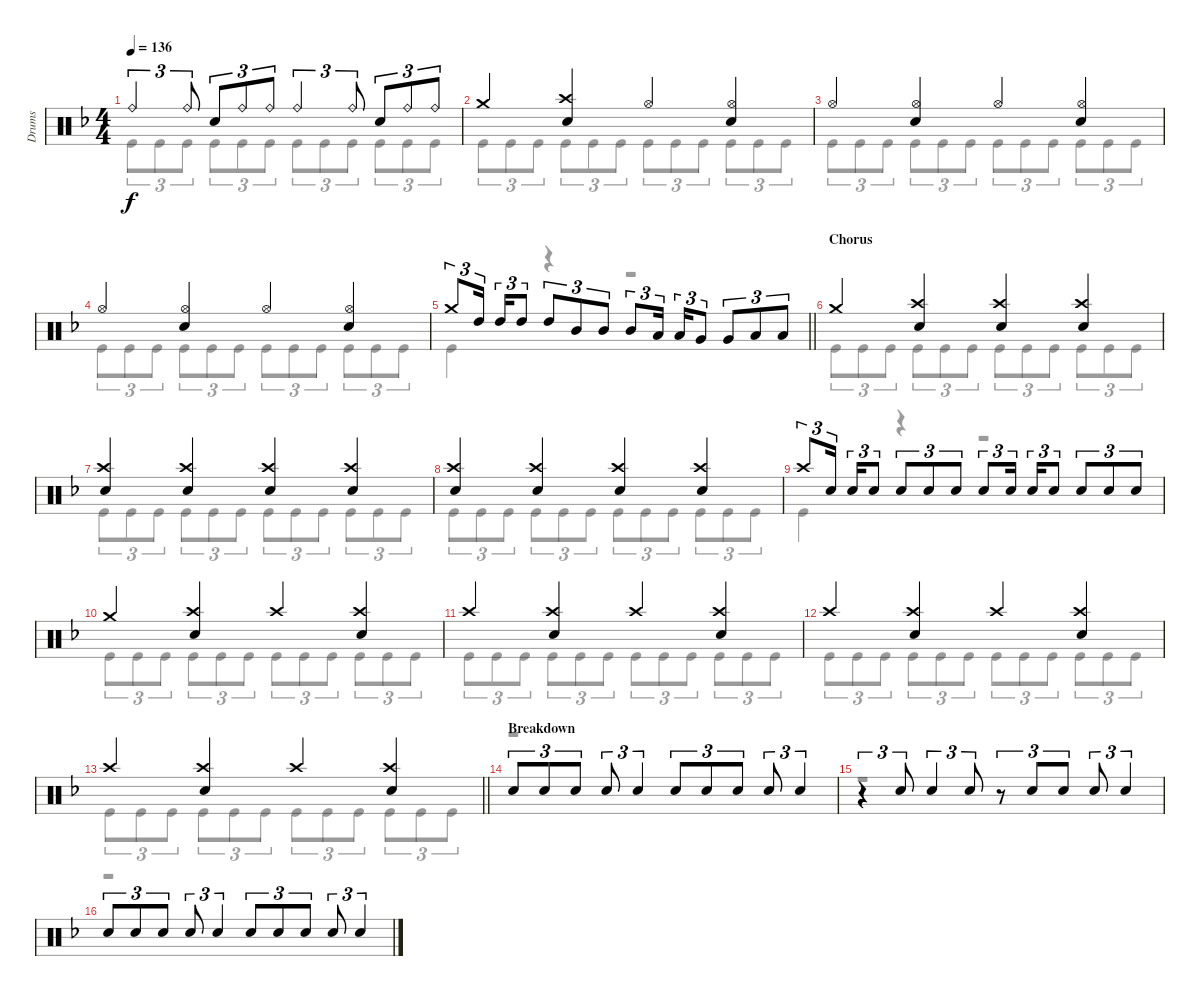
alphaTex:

\track ("Drums" "Drums") {instrument percussion}
\staff {score}
\articulation defaults
\voice
\ts (4 4)
\tempo 136
\clef neutral
\ks dminor "Ride (bell)".4{tu (3 2) dy f} "Ride (bell)".8{tu (3 2)} "Electric Snare (hit)".8{tu (3 2)} "Ride (bell)".8{tu (3 2)} "Ride (bell)".8{tu (3 2)} "Ride (bell)".4{tu (3 2)} "Ride (bell)".8{tu (3 2)} "Electric Snare (hit)".8{tu (3 2)} "Ride (bell)".8{tu (3 2)} "Ride (bell)".8{tu (3 2)}
|
"Crash medium (hit)".4 ("Crash high (hit)" "Electric Snare (hit)").4 "Hi-Hat (open)".4 ("Hi-Hat (open)" "Electric Snare (hit)").4 |
"Hi-Hat (open)".4 ("Hi-Hat (open)" "Electric Snare (hit)").4 "Hi-Hat (open)".4 ("Hi-Hat (open)" "Electric Snare (hit)").4 |
"Hi-Hat (open)".4 ("Hi-Hat (open)" "Electric Snare (hit)").4 "Hi-Hat (open)".4 ("Hi-Hat (open)" "Electric Snare (hit)").4 |
\barLineRight lightlight "Crash medium (hit)".8{tu (3 2)} "High Tom (hit)".16{tu (3 2)} "High Tom (hit)".16{tu (3 2)} "High Tom (hit)".8{tu (3 2)} "High Tom (hit)".8{tu (3 2)} "Mid Tom (hit)".8{tu (3 2)} "Mid Tom (hit)".8{tu (3 2)} "Mid Tom (hit)".8{tu (3 2)} "Low Tom (hit)".16{tu (3 2)} "Low Tom (hit)".16{tu (3 2)} "Very Low Tom (hit)".8{tu (3 2)} "Very Low Tom (hit)".8{tu (3 2)} "Low Floor Tom (hit)".8{tu (3 2)} "Low Floor Tom (hit)".8{tu (3 2)}
|
\section ("" "Chorus")
"Crash medium (hit)".4 ("Crash high (hit)" "Electric Snare (hit)").4 ("Crash high (hit)" "Electric Snare (hit)").4 ("Crash high (hit)" "Electric Snare (hit)").4 |
("Crash high (hit)" "Electric Snare (hit)").4 ("Crash high (hit)" "Electric Snare (hit)").4 ("Crash high (hit)" "Electric Snare (hit)").4 ("Crash high (hit)" "Electric Snare (hit)").4 |
("Crash high (hit)" "Electric Snare (hit)").4 ("Crash high (hit)" "Electric Snare (hit)").4 ("Crash high (hit)" "Electric Snare (hit)").4 ("Crash high (hit)" "Electric Snare (hit)").4 |
"Crash high (hit)".8{tu (3 2)} "Electric Snare (hit)".16{tu (3 2) beam splitsecondary} "Electric Snare (hit)".16{tu (3 2)} "Electric Snare (hit)".8{tu (3 2)} "Electric Snare (hit)".8{tu (3 2)} "Electric Snare (hit)".8{tu (3 2)} "Electric Snare (hit)".8{tu (3 2)} "Electric Snare (hit)".8{tu (3 2)} "Electric Snare (hit)".16{tu (3 2) beam splitsecondary} "Electric Snare (hit)".16{tu (3 2)} "Electric Snare (hit)".8{tu (3 2)} "Electric Snare (hit)".8{tu (3 2)} "Electric Snare (hit)".8{tu (3 2)} "Electric Snare (hit)".8{tu (3 2)} |
"Crash medium (hit)".4 ("Crash high (hit)" "Electric Snare (hit)").4 "Crash high (hit)".4 ("Crash high (hit)" "Electric Snare (hit)").4 |
"Crash high (hit)".4 ("Crash high (hit)" "Electric Snare (hit)").4 "Crash high (hit)".4 ("Crash high (hit)" "Electric Snare (hit)").4 |
"Crash high (hit)".4 ("Crash high (hit)" "Electric Snare (hit)").4 "Crash high (hit)".4 ("Crash high (hit)" "Electric Snare (hit)").4 |
\barLineRight lightlight "Crash high (hit)".4
("Crash high (hit)" "Electric Snare (hit)").4 "Crash high (hit)".4 ("Crash high (hit)" "Electric Snare (hit)").4 |
\section ("" "Breakdown")
"Electric Snare (hit)".8{tu (3 2)} "Electric Snare (hit)".8{tu (3 2)} "Electric Snare (hit)".8{tu (3 2)} "Electric Snare (hit)".8{tu (3 2)} "Electric Snare (hit)".4{tu (3 2)} "Electric Snare (hit)".8{tu (3 2)} "Electric Snare (hit)".8{tu (3 2)} "Electric Snare (hit)".8{tu (3 2)} "Electric Snare (hit)".8{tu (3 2)} "Electric Snare (hit)".4{tu (3 2)} |
r.4{tu (3 2)} "Electric Snare (hit)".8{tu (3 2)} "Electric Snare (hit)".4{tu (3 2)} "Electric Snare (hit)".8{tu (3 2)} r.8{tu (3 2)} "Electric Snare (hit)".8{tu (3 2)} "Electric Snare (hit)".8{tu (3 2)} "Electric Snare (hit)".8{tu (3 2)} "Electric Snare (hit)".4{tu (3 2)} |
"Electric Snare (hit)".8{tu (3 2)} "Electric Snare (hit)".8{tu (3 2)} "Electric Snare (hit)".8{tu (3 2)} "Electric Snare (hit)".8{tu (3 2)} "Electric Snare (hit)".4{tu (3 2)} "Electric Snare (hit)".8{tu (3 2)} "Electric Snare (hit)".8{tu (3 2)} "Electric Snare (hit)".8{tu (3 2)} "Electric Snare (hit)".8{tu (3 2)} "Electric Snare (hit)".4{tu (3 2)}
\voice
\clef neutral
\ottava regular
\simile none
\ks dminor "Kick (hit)".8{tu (3 2) dy f} "Kick (hit)".8{tu (3 2)} "Kick (hit)".8{tu (3 2)} "Kick (hit)".8{tu (3 2)} "Kick (hit)".8{tu (3 2)} "Kick (hit)".8{tu (3 2)} "Kick (hit)".8{tu (3 2)} "Kick (hit)".8{tu (3 2)} "Kick (hit)".8{tu (3 2)} "Kick (hit)".8{tu (3 2)} "Kick (hit)".8{tu (3 2)} "Kick (hit)".8{tu (3 2)}
|
"Kick (hit)".8{tu (3 2)} "Kick (hit)".8{tu (3 2)} "Kick (hit)".8{tu (3 2)} "Kick (hit)".8{tu (3 2)} "Kick (hit)".8{tu (3 2)} "Kick (hit)".8{tu (3 2)} "Kick (hit)".8{tu (3 2)} "Kick (hit)".8{tu (3 2)} "Kick (hit)".8{tu (3 2)} "Kick (hit)".8{tu (3 2)} "Kick (hit)".8{tu (3 2)} "Kick (hit)".8{tu (3 2)} |
"Kick (hit)".8{tu (3 2)} "Kick (hit)".8{tu (3 2)} "Kick (hit)".8{tu (3 2)} "Kick (hit)".8{tu (3 2)} "Kick (hit)".8{tu (3 2)} "Kick (hit)".8{tu (3 2)} "Kick (hit)".8{tu (3 2)} "Kick (hit)".8{tu (3 2)} "Kick (hit)".8{tu (3 2)} "Kick (hit)".8{tu (3 2)} "Kick (hit)".8{tu (3 2)} "Kick (hit)".8{tu (3 2)} |
"Kick (hit)".8{tu (3 2)} "Kick (hit)".8{tu (3 2)} "Kick (hit)".8{tu (3 2)} "Kick (hit)".8{tu (3 2)} "Kick (hit)".8{tu (3 2)} "Kick (hit)".8{tu (3 2)} "Kick (hit)".8{tu (3 2)} "Kick (hit)".8{tu (3 2)} "Kick (hit)".8{tu (3 2)} "Kick (hit)".8{tu (3 2)} "Kick (hit)".8{tu (3 2)} "Kick (hit)".8{tu (3 2)} |
\barLineRight lightlight "Kick (hit)".4
r.4 r.2 |
"Kick (hit)".8{tu (3 2)} "Kick (hit)".8{tu (3 2)} "Kick (hit)".8{tu (3 2)} "Kick (hit)".8{tu (3 2)} "Kick (hit)".8{tu (3 2)} "Kick (hit)".8{tu (3 2)} "Kick (hit)".8{tu (3 2)} "Kick (hit)".8{tu (3 2)} "Kick (hit)".8{tu (3 2)} "Kick (hit)".8{tu (3 2)} "Kick (hit)".8{tu (3 2)} "Kick (hit)".8{tu (3 2)} |
"Kick (hit)".8{tu (3 2)} "Kick (hit)".8{tu (3 2)} "Kick (hit)".8{tu (3 2)} "Kick (hit)".8{tu (3 2)} "Kick (hit)".8{tu (3 2)} "Kick (hit)".8{tu (3 2)} "Kick (hit)".8{tu (3 2)} "Kick (hit)".8{tu (3 2)} "Kick (hit)".8{tu (3 2)} "Kick (hit)".8{tu (3 2)} "Kick (hit)".8{tu (3 2)} "Kick (hit)".8{tu (3 2)} |
"Kick (hit)".8{tu (3 2)} "Kick (hit)".8{tu (3 2)} "Kick (hit)".8{tu (3 2)} "Kick (hit)".8{tu (3 2)} "Kick (hit)".8{tu (3 2)} "Kick (hit)".8{tu (3 2)} "Kick (hit)".8{tu (3 2)} "Kick (hit)".8{tu (3 2)} "Kick (hit)".8{tu (3 2)} "Kick (hit)".8{tu (3 2)} "Kick (hit)".8{tu (3 2)} "Kick (hit)".8{tu (3 2)} |
"Kick (hit)".4 r.4 r.2 |
"Kick (hit)".8{tu (3 2)} "Kick (hit)".8{tu (3 2)} "Kick (hit)".8{tu (3 2)} "Kick (hit)".8{tu (3 2)} "Kick (hit)".8{tu (3 2)} "Kick (hit)".8{tu (3 2)} "Kick (hit)".8{tu (3 2)} "Kick (hit)".8{tu (3 2)} "Kick (hit)".8{tu (3 2)} "Kick (hit)".8{tu (3 2)} "Kick (hit)".8{tu (3 2)} "Kick (hit)".8{tu (3 2)} |
"Kick (hit)".8{tu (3 2)} "Kick (hit)".8{tu (3 2)} "Kick (hit)".8{tu (3 2)} "Kick (hit)".8{tu (3 2)} "Kick (hit)".8{tu (3 2)} "Kick (hit)".8{tu (3 2)} "Kick (hit)".8{tu (3 2)} "Kick (hit)".8{tu (3 2)} "Kick (hit)".8{tu (3 2)} "Kick (hit)".8{tu (3 2)} "Kick (hit)".8{tu (3 2)} "Kick (hit)".8{tu (3 2)} |
"Kick (hit)".8{tu (3 2)} "Kick (hit)".8{tu (3 2)} "Kick (hit)".8{tu (3 2)} "Kick (hit)".8{tu (3 2)} "Kick (hit)".8{tu (3 2)} "Kick (hit)".8{tu (3 2)} "Kick (hit)".8{tu (3 2)} "Kick (hit)".8{tu (3 2)} "Kick (hit)".8{tu (3 2)} "Kick (hit)".8{tu (3 2)} "Kick (hit)".8{tu (3 2)} "Kick (hit)".8{tu (3 2)} |
\barLineRight lightlight "Kick (hit)".8{tu (3 2)} "Kick (hit)".8{tu (3 2)} "Kick (hit)".8{tu (3 2)} "Kick (hit)".8{tu (3 2)} "Kick (hit)".8{tu (3 2)} "Kick (hit)".8{tu (3 2)} "Kick (hit)".8{tu (3 2)} "Kick (hit)".8{tu (3 2)} "Kick (hit)".8{tu (3 2)} "Kick (hit)".8{tu (3 2)} "Kick (hit)".8{tu (3 2)} "Kick (hit)".8{tu (3 2)}
|
r.1 |
r.1 |
r.1
